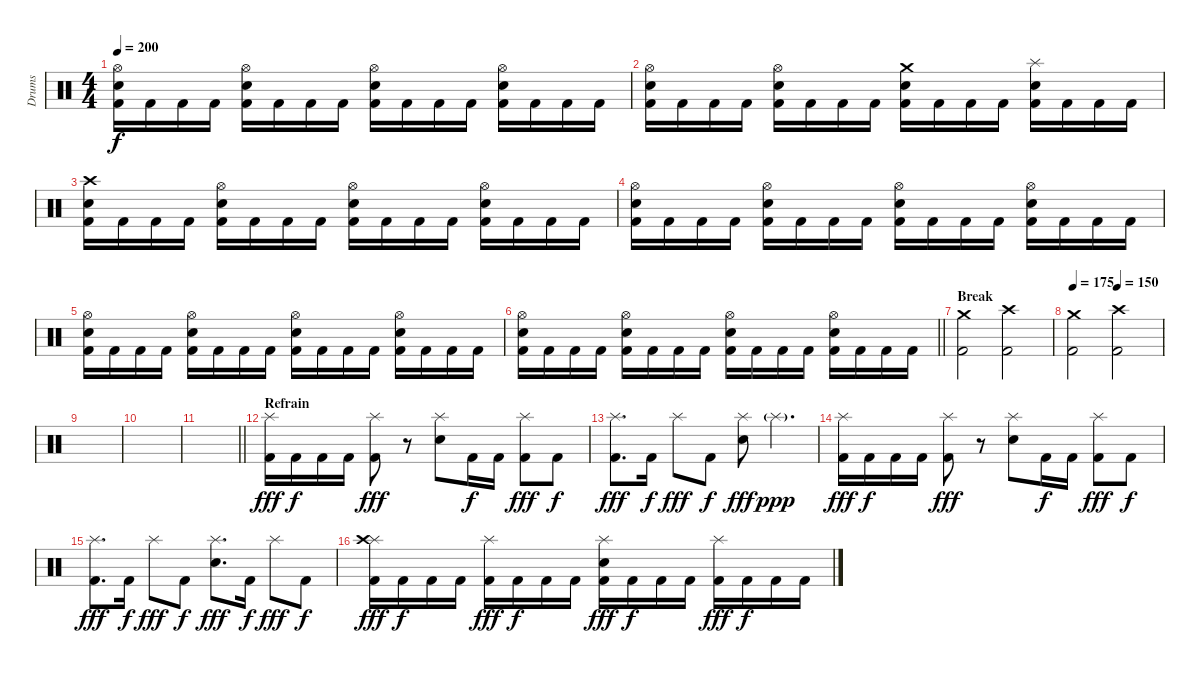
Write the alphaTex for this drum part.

\track ("Drums" "Drums") {instrument percussion}
\staff {score}
\articulation defaults
\ts (4 4)
\tempo 200
\clef neutral
\ks c
("Hi-Hat (open)" "Electric Snare (hit)" "Kick (hit) 2").16{dy f} "Kick (hit) 2".16 "Kick (hit) 2".16 "Kick (hit) 2".16 ("Hi-Hat (open)" "Electric Snare (hit)" "Kick (hit) 2").16 "Kick (hit) 2".16 "Kick (hit) 2".16 "Kick (hit) 2".16 ("Hi-Hat (open)" "Electric Snare (hit)" "Kick (hit) 2").16 "Kick (hit) 2".16 "Kick (hit) 2".16 "Kick (hit) 2".16 ("Hi-Hat (open)" "Electric Snare (hit)" "Kick (hit) 2").16 "Kick (hit) 2".16 "Kick (hit) 2".16 "Kick (hit) 2".16 |
("Hi-Hat (open)" "Electric Snare (hit)" "Kick (hit) 2").16 "Kick (hit) 2".16 "Kick (hit) 2".16 "Kick (hit) 2".16 ("Hi-Hat (open)" "Electric Snare (hit)" "Kick (hit) 2").16 "Kick (hit) 2".16 "Kick (hit) 2".16 "Kick (hit) 2".16 ("Crash medium (hit)" "Electric Snare (hit)" "Kick (hit) 2").16 "Kick (hit) 2".16 "Kick (hit) 2".16 "Kick (hit) 2".16 ("Splash (hit)" "Electric Snare (hit)" "Kick (hit) 2").16 "Kick (hit) 2".16 "Kick (hit) 2".16 "Kick (hit) 2".16 |
("Crash high (hit)" "Electric Snare (hit)" "Kick (hit) 2").16 "Kick (hit) 2".16 "Kick (hit) 2".16 "Kick (hit) 2".16 ("Hi-Hat (open)" "Electric Snare (hit)" "Kick (hit) 2").16 "Kick (hit) 2".16 "Kick (hit) 2".16 "Kick (hit) 2".16 ("Hi-Hat (open)" "Electric Snare (hit)" "Kick (hit) 2").16 "Kick (hit) 2".16 "Kick (hit) 2".16 "Kick (hit) 2".16 ("Hi-Hat (open)" "Electric Snare (hit)" "Kick (hit) 2").16 "Kick (hit) 2".16 "Kick (hit) 2".16 "Kick (hit) 2".16 |
("Hi-Hat (open)" "Electric Snare (hit)" "Kick (hit) 2").16 "Kick (hit) 2".16 "Kick (hit) 2".16 "Kick (hit) 2".16 ("Hi-Hat (open)" "Electric Snare (hit)" "Kick (hit) 2").16 "Kick (hit) 2".16 "Kick (hit) 2".16 "Kick (hit) 2".16 ("Hi-Hat (open)" "Electric Snare (hit)" "Kick (hit) 2").16 "Kick (hit) 2".16 "Kick (hit) 2".16 "Kick (hit) 2".16 ("Hi-Hat (open)" "Electric Snare (hit)" "Kick (hit) 2").16 "Kick (hit) 2".16 "Kick (hit) 2".16 "Kick (hit) 2".16 |
("Hi-Hat (open)" "Electric Snare (hit)" "Kick (hit) 2").16 "Kick (hit) 2".16 "Kick (hit) 2".16 "Kick (hit) 2".16 ("Hi-Hat (open)" "Electric Snare (hit)" "Kick (hit) 2").16 "Kick (hit) 2".16 "Kick (hit) 2".16 "Kick (hit) 2".16 ("Hi-Hat (open)" "Electric Snare (hit)" "Kick (hit) 2").16 "Kick (hit) 2".16 "Kick (hit) 2".16 "Kick (hit) 2".16 ("Hi-Hat (open)" "Electric Snare (hit)" "Kick (hit) 2").16 "Kick (hit) 2".16 "Kick (hit) 2".16 "Kick (hit) 2".16 |
\barLineRight lightlight
("Hi-Hat (open)" "Electric Snare (hit)" "Kick (hit) 2").16 "Kick (hit) 2".16 "Kick (hit) 2".16 "Kick (hit) 2".16 ("Hi-Hat (open)" "Electric Snare (hit)" "Kick (hit) 2").16 "Kick (hit) 2".16 "Kick (hit) 2".16 "Kick (hit) 2".16 ("Hi-Hat (open)" "Electric Snare (hit)" "Kick (hit) 2").16 "Kick (hit) 2".16 "Kick (hit) 2".16 "Kick (hit) 2".16 ("Hi-Hat (open)" "Electric Snare (hit)" "Kick (hit) 2").16 "Kick (hit) 2".16 "Kick (hit) 2".16 "Kick (hit) 2".16 |
\section ("" "Break")
("Crash medium (hit)" "Kick (hit) 2").2 ("Crash high (hit)" "Kick (hit) 2").2 |
\tempo 175
\tempo (150 0.5)
("Crash medium (hit)" "Kick (hit) 2").2 ("Crash high (hit)" "Kick (hit) 2").2 |
|
|
\barLineRight lightlight
|
\section ("" "Refrain")
("Splash (hit)" "Kick (hit) 2").16{dy fff} "Kick (hit) 2".16{dy f} "Kick (hit) 2".16 "Kick (hit) 2".16 ("Splash (hit)" "Kick (hit) 2").8{dy fff} r.8 ("Splash (hit)" "Electric Snare (hit)").8 "Kick (hit) 2".16{dy f} "Kick (hit) 2".16 ("Splash (hit)" "Kick (hit) 2").8{dy fff} "Kick (hit) 2".8{dy f} |
("Splash (hit)" "Kick (hit) 2").8{d dy fff} "Kick (hit) 2".16{dy f} "Splash (hit)".8{dy fff} "Kick (hit) 2".8{dy f} ("Splash (hit)" "Electric Snare (hit)").8{dy fff} "Splash (hit)"{g}.4{d dy ppp} |
("Splash (hit)" "Kick (hit) 2").16{dy fff} "Kick (hit) 2".16{dy f} "Kick (hit) 2".16 "Kick (hit) 2".16 ("Splash (hit)" "Kick (hit) 2").8{dy fff} r.8 ("Splash (hit)" "Electric Snare (hit)").8 "Kick (hit) 2".16{dy f} "Kick (hit) 2".16 ("Splash (hit)" "Kick (hit) 2").8{dy fff} "Kick (hit) 2".8{dy f} |
("Splash (hit)" "Kick (hit) 2").8{d dy fff} "Kick (hit) 2".16{dy f} "Splash (hit)".8{dy fff} "Kick (hit) 2".8{dy f} ("Splash (hit)" "Electric Snare (hit)").8{d dy fff} "Kick (hit) 2".16{dy f} "Splash (hit)".8{dy fff} "Kick (hit) 2".8{dy f} |
("Splash (hit)" "Crash high (hit)" "Kick (hit) 2").16{dy fff} "Kick (hit) 2".16{dy f} "Kick (hit) 2".16 "Kick (hit) 2".16 ("Splash (hit)" "Kick (hit) 2").16{dy fff} "Kick (hit) 2".16{dy f} "Kick (hit) 2".16 "Kick (hit) 2".16 ("Splash (hit)" "Electric Snare (hit)" "Kick (hit) 2").16{dy fff} "Kick (hit) 2".16{dy f} "Kick (hit) 2".16 "Kick (hit) 2".16 ("Splash (hit)" "Kick (hit) 2").16{dy fff} "Kick (hit) 2".16{dy f} "Kick (hit) 2".16 "Kick (hit) 2".16
